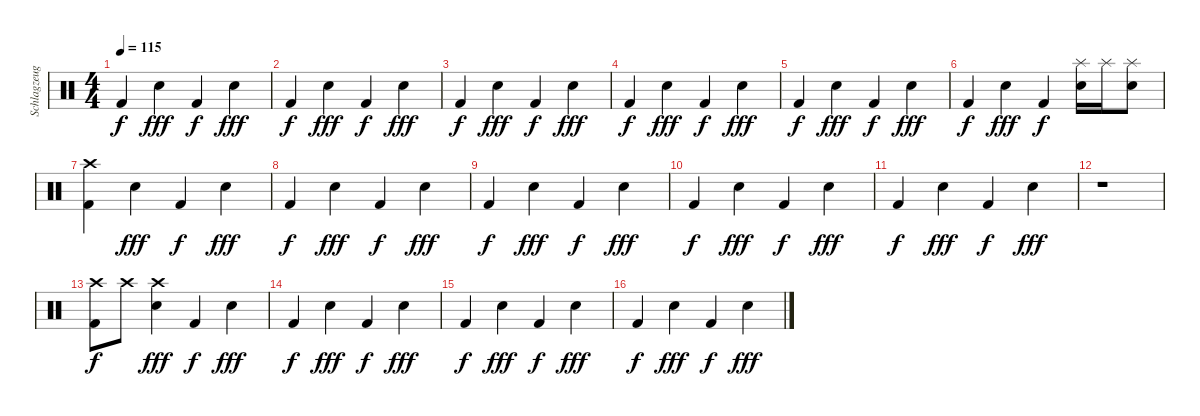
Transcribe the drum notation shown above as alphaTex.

\track ("Schlagzeug" "Schlagzeug") {instrument percussion}
\staff {score}
\articulation defaults
\ts (4 4)
\tempo 115
\clef neutral
\ks c "Kick (hit) 2".4{dy f} "Electric Snare (hit)".4{dy fff} "Kick (hit) 2".4{dy f} "Electric Snare (hit)".4{dy fff}
|
"Kick (hit) 2".4{dy f} "Electric Snare (hit)".4{dy fff} "Kick (hit) 2".4{dy f} "Electric Snare (hit)".4{dy fff} |
"Kick (hit) 2".4{dy f} "Electric Snare (hit)".4{dy fff} "Kick (hit) 2".4{dy f} "Electric Snare (hit)".4{dy fff} |
"Kick (hit) 2".4{dy f} "Electric Snare (hit)".4{dy fff} "Kick (hit) 2".4{dy f} "Electric Snare (hit)".4{dy fff} |
"Kick (hit) 2".4{dy f} "Electric Snare (hit)".4{dy fff} "Kick (hit) 2".4{dy f} "Electric Snare (hit)".4{dy fff} |
"Kick (hit) 2".4{dy f} "Electric Snare (hit)".4{dy fff} "Kick (hit) 2".4{dy f} ("Splash (hit)" "Electric Snare (hit)").16 "Splash (hit)".16 ("Splash (hit)" "Electric Snare (hit)").8 |
("Crash high (hit)" "Kick (hit) 2").4 "Electric Snare (hit)".4{dy fff} "Kick (hit) 2".4{dy f} "Electric Snare (hit)".4{dy fff} |
"Kick (hit) 2".4{dy f} "Electric Snare (hit)".4{dy fff} "Kick (hit) 2".4{dy f} "Electric Snare (hit)".4{dy fff} |
"Kick (hit) 2".4{dy f} "Electric Snare (hit)".4{dy fff} "Kick (hit) 2".4{dy f} "Electric Snare (hit)".4{dy fff} |
"Kick (hit) 2".4{dy f} "Electric Snare (hit)".4{dy fff} "Kick (hit) 2".4{dy f} "Electric Snare (hit)".4{dy fff} |
"Kick (hit) 2".4{dy f} "Electric Snare (hit)".4{dy fff} "Kick (hit) 2".4{dy f} "Electric Snare (hit)".4{dy fff} |
r.1 |
("Crash high (hit)" "Kick (hit) 2").8{dy f} "Crash high (hit)".8 ("Electric Snare (hit)" "Crash high (hit)").4{dy fff} "Kick (hit) 2".4{dy f} "Electric Snare (hit)".4{dy fff} |
"Kick (hit) 2".4{dy f} "Electric Snare (hit)".4{dy fff} "Kick (hit) 2".4{dy f} "Electric Snare (hit)".4{dy fff} |
"Kick (hit) 2".4{dy f} "Electric Snare (hit)".4{dy fff} "Kick (hit) 2".4{dy f} "Electric Snare (hit)".4{dy fff} |
"Kick (hit) 2".4{dy f} "Electric Snare (hit)".4{dy fff} "Kick (hit) 2".4{dy f} "Electric Snare (hit)".4{dy fff}
